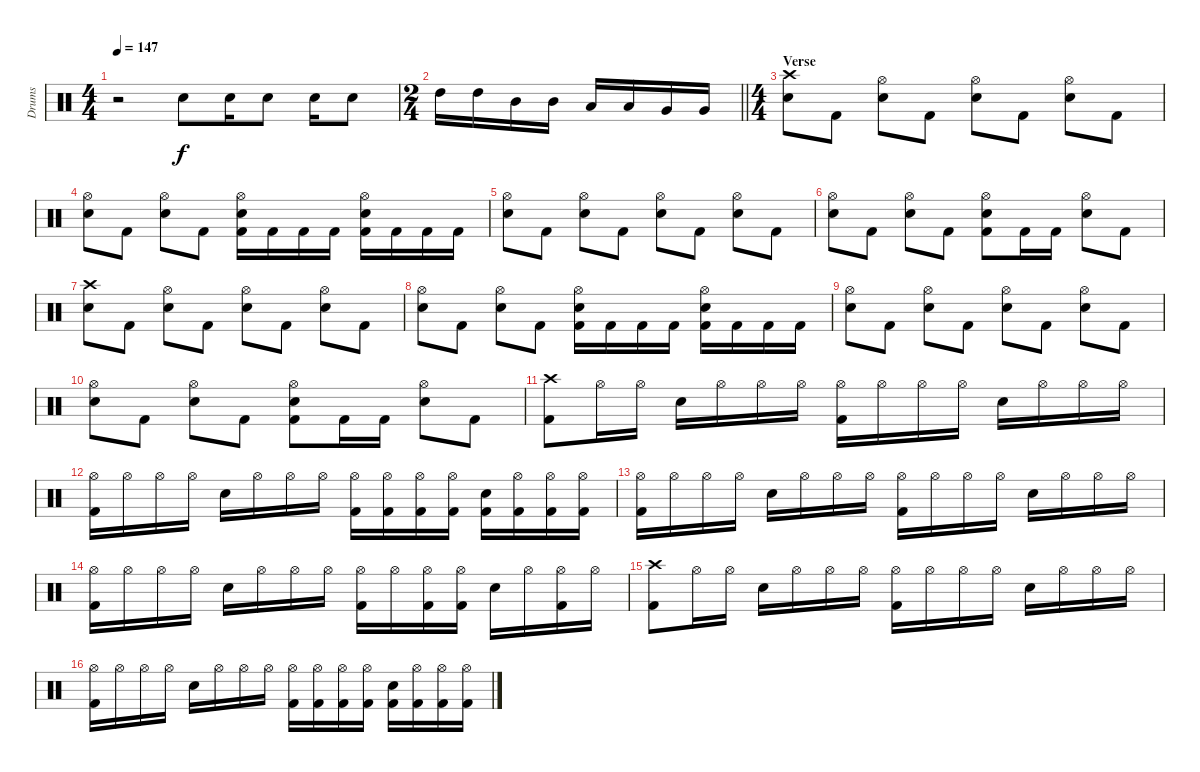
\track ("Drums" "Drums") {instrument percussion}
\staff {score}
\articulation defaults
\ts (4 4)
\tempo 147
\clef neutral
\ks c
r.2{dy f volume 13} "Electric Snare (hit)".8 "Electric Snare (hit)".16 "Electric Snare (hit)".8 "Electric Snare (hit)".16 "Electric Snare (hit)".8 |
\ts (2 4)
\barLineRight lightlight "High Tom (hit)".16 "High Tom (hit)".16 "Mid Tom (hit)".16 "Mid Tom (hit)".16 "Low Tom (hit)".16 "Low Tom (hit)".16 "Very Low Tom (hit)".16 "Very Low Tom (hit)".16
|
\ts (4 4)
\section ("" "Verse")
("Crash high (hit)" "Electric Snare (hit)").8 "Kick (hit) 2".8 ("Hi-Hat (open)" "Electric Snare (hit)").8 "Kick (hit) 2".8 ("Hi-Hat (open)" "Electric Snare (hit)").8 "Kick (hit) 2".8 ("Hi-Hat (open)" "Electric Snare (hit)").8 "Kick (hit) 2".8 |
("Hi-Hat (open)" "Electric Snare (hit)").8 "Kick (hit) 2".8 ("Hi-Hat (open)" "Electric Snare (hit)").8 "Kick (hit) 2".8 ("Hi-Hat (open)" "Electric Snare (hit)" "Kick (hit) 2").16 "Kick (hit) 2".16 "Kick (hit) 2".16 "Kick (hit) 2".16 ("Hi-Hat (open)" "Electric Snare (hit)" "Kick (hit) 2").16 "Kick (hit) 2".16 "Kick (hit) 2".16 "Kick (hit) 2".16 |
("Hi-Hat (open)" "Electric Snare (hit)").8 "Kick (hit) 2".8 ("Hi-Hat (open)" "Electric Snare (hit)").8 "Kick (hit) 2".8 ("Hi-Hat (open)" "Electric Snare (hit)").8 "Kick (hit) 2".8 ("Hi-Hat (open)" "Electric Snare (hit)").8 "Kick (hit) 2".8 |
("Hi-Hat (open)" "Electric Snare (hit)").8 "Kick (hit) 2".8 ("Hi-Hat (open)" "Electric Snare (hit)").8 "Kick (hit) 2".8 ("Hi-Hat (open)" "Electric Snare (hit)" "Kick (hit) 2").8 "Kick (hit) 2".16 "Kick (hit) 2".16 ("Hi-Hat (open)" "Electric Snare (hit)").8 "Kick (hit) 2".8 |
("Crash high (hit)" "Electric Snare (hit)").8 "Kick (hit) 2".8 ("Hi-Hat (open)" "Electric Snare (hit)").8 "Kick (hit) 2".8 ("Hi-Hat (open)" "Electric Snare (hit)").8 "Kick (hit) 2".8 ("Hi-Hat (open)" "Electric Snare (hit)").8 "Kick (hit) 2".8 |
("Hi-Hat (open)" "Electric Snare (hit)").8 "Kick (hit) 2".8 ("Hi-Hat (open)" "Electric Snare (hit)").8 "Kick (hit) 2".8 ("Hi-Hat (open)" "Electric Snare (hit)" "Kick (hit) 2").16 "Kick (hit) 2".16 "Kick (hit) 2".16 "Kick (hit) 2".16 ("Hi-Hat (open)" "Electric Snare (hit)" "Kick (hit) 2").16 "Kick (hit) 2".16 "Kick (hit) 2".16 "Kick (hit) 2".16 |
("Hi-Hat (open)" "Electric Snare (hit)").8 "Kick (hit) 2".8 ("Hi-Hat (open)" "Electric Snare (hit)").8 "Kick (hit) 2".8 ("Hi-Hat (open)" "Electric Snare (hit)").8 "Kick (hit) 2".8 ("Hi-Hat (open)" "Electric Snare (hit)").8 "Kick (hit) 2".8 |
("Hi-Hat (open)" "Electric Snare (hit)").8 "Kick (hit) 2".8 ("Hi-Hat (open)" "Electric Snare (hit)").8 "Kick (hit) 2".8 ("Hi-Hat (open)" "Electric Snare (hit)" "Kick (hit) 2").8 "Kick (hit) 2".16 "Kick (hit) 2".16 ("Hi-Hat (open)" "Electric Snare (hit)").8 "Kick (hit) 2".8 |
("Crash high (hit)" "Kick (hit) 2").8 "Hi-Hat (open)".16 "Hi-Hat (open)".16 "Electric Snare (hit)".16 "Hi-Hat (open)".16 "Hi-Hat (open)".16 "Hi-Hat (open)".16 ("Hi-Hat (open)" "Kick (hit) 2").16 "Hi-Hat (open)".16 "Hi-Hat (open)".16 "Hi-Hat (open)".16 "Electric Snare (hit)".16 "Hi-Hat (open)".16 "Hi-Hat (open)".16 "Hi-Hat (open)".16 |
("Hi-Hat (open)" "Kick (hit) 2").16 "Hi-Hat (open)".16 "Hi-Hat (open)".16 "Hi-Hat (open)".16 "Electric Snare (hit)".16 "Hi-Hat (open)".16 "Hi-Hat (open)".16 "Hi-Hat (open)".16 ("Hi-Hat (open)" "Kick (hit) 2").16 ("Hi-Hat (open)" "Kick (hit) 2").16 ("Hi-Hat (open)" "Kick (hit) 2").16 ("Hi-Hat (open)" "Kick (hit) 2").16 ("Electric Snare (hit)" "Kick (hit) 2").16 ("Hi-Hat (open)" "Kick (hit) 2").16 ("Hi-Hat (open)" "Kick (hit) 2").16 ("Hi-Hat (open)" "Kick (hit) 2").16 |
("Hi-Hat (open)" "Kick (hit) 2").16 "Hi-Hat (open)".16 "Hi-Hat (open)".16 "Hi-Hat (open)".16 "Electric Snare (hit)".16 "Hi-Hat (open)".16 "Hi-Hat (open)".16 "Hi-Hat (open)".16 ("Hi-Hat (open)" "Kick (hit) 2").16 "Hi-Hat (open)".16 "Hi-Hat (open)".16 "Hi-Hat (open)".16 "Electric Snare (hit)".16 "Hi-Hat (open)".16 "Hi-Hat (open)".16 "Hi-Hat (open)".16 |
("Hi-Hat (open)" "Kick (hit) 2").16 "Hi-Hat (open)".16 "Hi-Hat (open)".16 "Hi-Hat (open)".16 "Electric Snare (hit)".16 "Hi-Hat (open)".16 "Hi-Hat (open)".16 "Hi-Hat (open)".16 ("Hi-Hat (open)" "Kick (hit) 2").16 "Hi-Hat (open)".16 ("Hi-Hat (open)" "Kick (hit) 2").16 ("Hi-Hat (open)" "Kick (hit) 2").16 "Electric Snare (hit)".16 "Hi-Hat (open)".16 ("Hi-Hat (open)" "Kick (hit) 2").16 "Hi-Hat (open)".16 |
("Crash high (hit)" "Kick (hit) 2").8 "Hi-Hat (open)".16 "Hi-Hat (open)".16 "Electric Snare (hit)".16 "Hi-Hat (open)".16 "Hi-Hat (open)".16 "Hi-Hat (open)".16 ("Hi-Hat (open)" "Kick (hit) 2").16 "Hi-Hat (open)".16 "Hi-Hat (open)".16 "Hi-Hat (open)".16 "Electric Snare (hit)".16 "Hi-Hat (open)".16 "Hi-Hat (open)".16 "Hi-Hat (open)".16 |
("Hi-Hat (open)" "Kick (hit) 2").16 "Hi-Hat (open)".16 "Hi-Hat (open)".16 "Hi-Hat (open)".16 "Electric Snare (hit)".16 "Hi-Hat (open)".16 "Hi-Hat (open)".16 "Hi-Hat (open)".16 ("Hi-Hat (open)" "Kick (hit) 2").16 ("Hi-Hat (open)" "Kick (hit) 2").16 ("Hi-Hat (open)" "Kick (hit) 2").16 ("Hi-Hat (open)" "Kick (hit) 2").16 ("Electric Snare (hit)" "Kick (hit) 2").16 ("Hi-Hat (open)" "Kick (hit) 2").16 ("Hi-Hat (open)" "Kick (hit) 2").16 ("Hi-Hat (open)" "Kick (hit) 2").16
